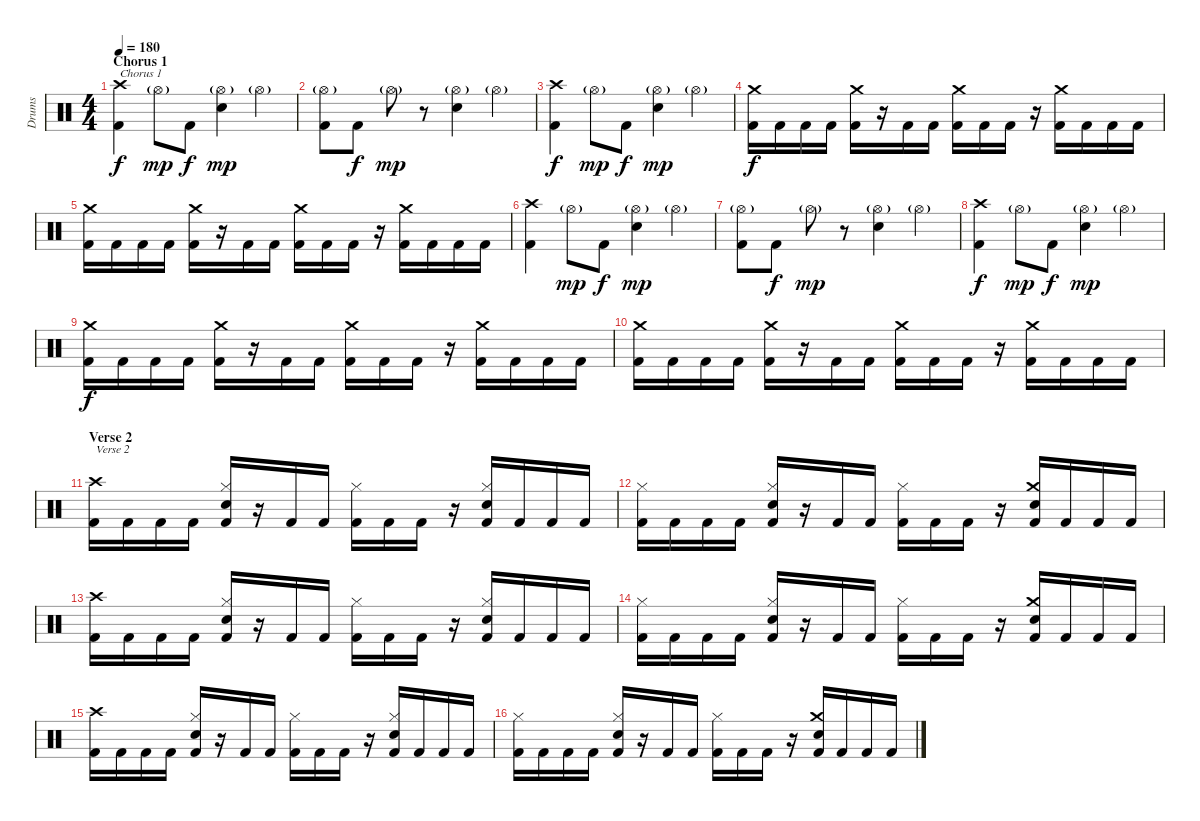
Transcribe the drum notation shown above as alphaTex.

\track ("Drums" "Drums") {instrument percussion}
\staff {score}
\articulation defaults
\ts (4 4)
\section ("" "Chorus 1")
\tempo 180
\clef neutral
\ks c
("Crash high (hit)" "Kick (hit) 2").4{txt "Chorus 1" dy f} "Hi-Hat (open)"{g}.8{dy mp} "Kick (hit) 2".8{dy f} ("Hi-Hat (open)"{g} "Electric Snare (hit)").4{dy mp} "Hi-Hat (open)"{g}.4 |
("Hi-Hat (open)"{g} "Kick (hit) 2").8 "Kick (hit) 2".8{dy f} "Hi-Hat (open)"{g}.8{dy mp} r.8 ("Hi-Hat (open)"{g} "Electric Snare (hit)").4 "Hi-Hat (open)"{g}.4 |
("Crash high (hit)" "Kick (hit) 2").4{dy f} "Hi-Hat (open)"{g}.8{dy mp} "Kick (hit) 2".8{dy f} ("Hi-Hat (open)"{g} "Electric Snare (hit)").4{dy mp} "Hi-Hat (open)"{g}.4 |
("Crash medium (hit)" "Kick (hit) 2").16{dy f} "Kick (hit) 2".16 "Kick (hit) 2".16 "Kick (hit) 2".16 ("Crash medium (hit)" "Kick (hit) 2").16 r.16 "Kick (hit) 2".16 "Kick (hit) 2".16 ("Crash medium (hit)" "Kick (hit) 2").16 "Kick (hit) 2".16 "Kick (hit) 2".16 r.16 ("Crash medium (hit)" "Kick (hit) 2").16 "Kick (hit) 2".16 "Kick (hit) 2".16 "Kick (hit) 2".16 |
("Crash medium (hit)" "Kick (hit) 2").16 "Kick (hit) 2".16 "Kick (hit) 2".16 "Kick (hit) 2".16 ("Crash medium (hit)" "Kick (hit) 2").16 r.16 "Kick (hit) 2".16 "Kick (hit) 2".16 ("Crash medium (hit)" "Kick (hit) 2").16 "Kick (hit) 2".16 "Kick (hit) 2".16 r.16 ("Crash medium (hit)" "Kick (hit) 2").16 "Kick (hit) 2".16 "Kick (hit) 2".16 "Kick (hit) 2".16 |
("Crash high (hit)" "Kick (hit) 2").4 "Hi-Hat (open)"{g}.8{dy mp} "Kick (hit) 2".8{dy f} ("Hi-Hat (open)"{g} "Electric Snare (hit)").4{dy mp} "Hi-Hat (open)"{g}.4 |
("Hi-Hat (open)"{g} "Kick (hit) 2").8 "Kick (hit) 2".8{dy f} "Hi-Hat (open)"{g}.8{dy mp} r.8 ("Hi-Hat (open)"{g} "Electric Snare (hit)").4 "Hi-Hat (open)"{g}.4 |
("Crash high (hit)" "Kick (hit) 2").4{dy f} "Hi-Hat (open)"{g}.8{dy mp} "Kick (hit) 2".8{dy f} ("Hi-Hat (open)"{g} "Electric Snare (hit)").4{dy mp} "Hi-Hat (open)"{g}.4 |
("Crash medium (hit)" "Kick (hit) 2").16{dy f} "Kick (hit) 2".16 "Kick (hit) 2".16 "Kick (hit) 2".16 ("Crash medium (hit)" "Kick (hit) 2").16 r.16 "Kick (hit) 2".16 "Kick (hit) 2".16 ("Crash medium (hit)" "Kick (hit) 2").16 "Kick (hit) 2".16 "Kick (hit) 2".16 r.16 ("Crash medium (hit)" "Kick (hit) 2").16 "Kick (hit) 2".16 "Kick (hit) 2".16 "Kick (hit) 2".16 |
("Crash medium (hit)" "Kick (hit) 2").16 "Kick (hit) 2".16 "Kick (hit) 2".16 "Kick (hit) 2".16 ("Crash medium (hit)" "Kick (hit) 2").16 r.16 "Kick (hit) 2".16 "Kick (hit) 2".16 ("Crash medium (hit)" "Kick (hit) 2").16 "Kick (hit) 2".16 "Kick (hit) 2".16 r.16 ("Crash medium (hit)" "Kick (hit) 2").16 "Kick (hit) 2".16 "Kick (hit) 2".16 "Kick (hit) 2".16 |
\section ("" "Verse 2")
("Crash high (hit)" "Kick (hit) 2").16{txt "Verse 2"} "Kick (hit) 2".16 "Kick (hit) 2".16 "Kick (hit) 2".16 ("Hi-Hat (closed)" "Snare (hit) 2" "Kick (hit) 2").16 r.16 "Kick (hit) 2".16 "Kick (hit) 2".16 ("Hi-Hat (closed)" "Kick (hit) 2").16 "Kick (hit) 2".16 "Kick (hit) 2".16 r.16 ("Hi-Hat (closed)" "Snare (hit) 2" "Kick (hit) 2").16 "Kick (hit) 2".16 "Kick (hit) 2".16 "Kick (hit) 2".16 |
("Hi-Hat (closed)" "Kick (hit) 2").16 "Kick (hit) 2".16 "Kick (hit) 2".16 "Kick (hit) 2".16 ("Hi-Hat (closed)" "Snare (hit) 2" "Kick (hit) 2").16 r.16 "Kick (hit) 2".16 "Kick (hit) 2".16 ("Hi-Hat (closed)" "Kick (hit) 2").16 "Kick (hit) 2".16 "Kick (hit) 2".16 r.16 ("Crash medium (hit)" "Snare (hit) 2" "Kick (hit) 2").16 "Kick (hit) 2".16 "Kick (hit) 2".16 "Kick (hit) 2".16 |
("Crash high (hit)" "Kick (hit) 2").16 "Kick (hit) 2".16 "Kick (hit) 2".16 "Kick (hit) 2".16 ("Hi-Hat (closed)" "Snare (hit) 2" "Kick (hit) 2").16 r.16 "Kick (hit) 2".16 "Kick (hit) 2".16 ("Hi-Hat (closed)" "Kick (hit) 2").16 "Kick (hit) 2".16 "Kick (hit) 2".16 r.16 ("Hi-Hat (closed)" "Snare (hit) 2" "Kick (hit) 2").16 "Kick (hit) 2".16 "Kick (hit) 2".16 "Kick (hit) 2".16 |
("Hi-Hat (closed)" "Kick (hit) 2").16 "Kick (hit) 2".16 "Kick (hit) 2".16 "Kick (hit) 2".16 ("Hi-Hat (closed)" "Snare (hit) 2" "Kick (hit) 2").16 r.16 "Kick (hit) 2".16 "Kick (hit) 2".16 ("Hi-Hat (closed)" "Kick (hit) 2").16 "Kick (hit) 2".16 "Kick (hit) 2".16 r.16 ("Crash medium (hit)" "Snare (hit) 2" "Kick (hit) 2").16 "Kick (hit) 2".16 "Kick (hit) 2".16 "Kick (hit) 2".16 |
("Crash high (hit)" "Kick (hit) 2").16 "Kick (hit) 2".16 "Kick (hit) 2".16 "Kick (hit) 2".16 ("Hi-Hat (closed)" "Snare (hit) 2" "Kick (hit) 2").16 r.16 "Kick (hit) 2".16 "Kick (hit) 2".16 ("Hi-Hat (closed)" "Kick (hit) 2").16 "Kick (hit) 2".16 "Kick (hit) 2".16 r.16 ("Hi-Hat (closed)" "Snare (hit) 2" "Kick (hit) 2").16 "Kick (hit) 2".16 "Kick (hit) 2".16 "Kick (hit) 2".16 |
("Hi-Hat (closed)" "Kick (hit) 2").16 "Kick (hit) 2".16 "Kick (hit) 2".16 "Kick (hit) 2".16 ("Hi-Hat (closed)" "Snare (hit) 2" "Kick (hit) 2").16 r.16 "Kick (hit) 2".16 "Kick (hit) 2".16 ("Hi-Hat (closed)" "Kick (hit) 2").16 "Kick (hit) 2".16 "Kick (hit) 2".16 r.16 ("Crash medium (hit)" "Snare (hit) 2" "Kick (hit) 2").16 "Kick (hit) 2".16 "Kick (hit) 2".16 "Kick (hit) 2".16
